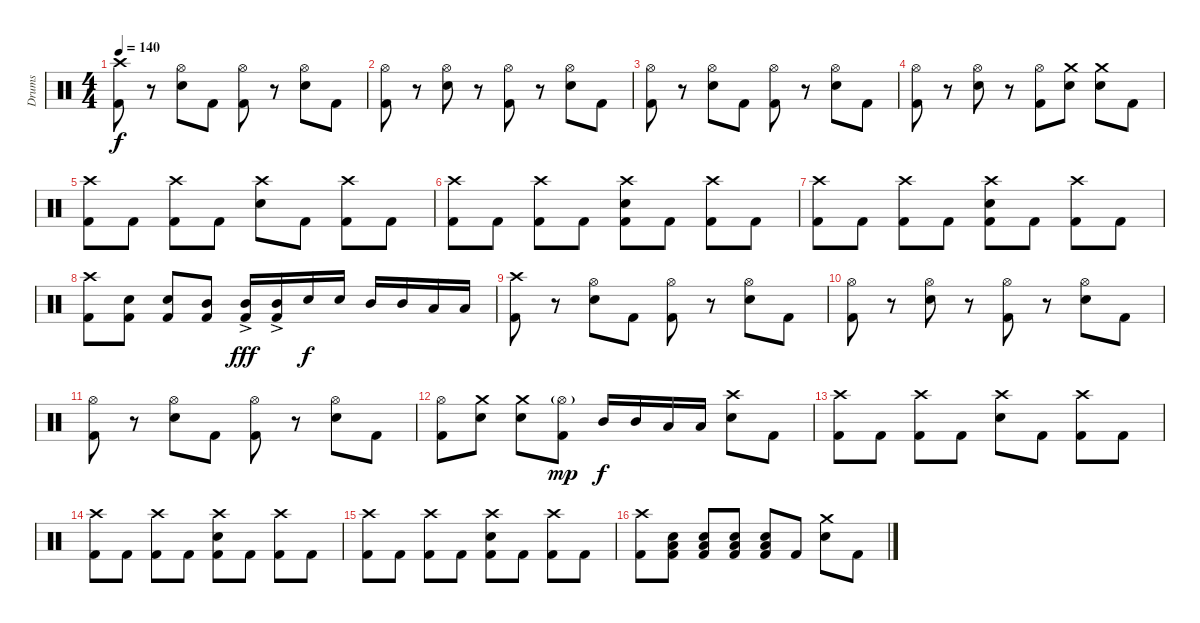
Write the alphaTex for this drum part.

\track ("Drums" "Drums") {instrument percussion}
\staff {score}
\articulation defaults
\ts (4 4)
\tempo 140
\clef neutral
\ks c
("Crash high (hit)" "Kick (hit) 2").8{dy f} r.8 ("Hi-Hat (open)" "Electric Snare (hit)").8 "Kick (hit) 2".8 ("Hi-Hat (open)" "Kick (hit) 2").8 r.8 ("Hi-Hat (open)" "Electric Snare (hit)").8 "Kick (hit) 2".8 |
("Hi-Hat (open)" "Kick (hit) 2").8 r.8 ("Hi-Hat (open)" "Electric Snare (hit)").8 r.8 ("Hi-Hat (open)" "Kick (hit) 2").8 r.8 ("Hi-Hat (open)" "Electric Snare (hit)").8 "Kick (hit) 2".8 |
("Hi-Hat (open)" "Kick (hit) 2").8 r.8 ("Hi-Hat (open)" "Electric Snare (hit)").8 "Kick (hit) 2".8 ("Hi-Hat (open)" "Kick (hit) 2").8 r.8 ("Hi-Hat (open)" "Electric Snare (hit)").8 "Kick (hit) 2".8 |
("Hi-Hat (open)" "Kick (hit) 2").8 r.8 ("Hi-Hat (open)" "Electric Snare (hit)").8 r.8 ("Hi-Hat (open)" "Kick (hit) 2").8 ("Crash medium (hit)" "Electric Snare (hit)").8 ("Crash medium (hit)" "Electric Snare (hit)").8 "Kick (hit) 2".8 |
("Crash high (hit)" "Kick (hit) 2").8 "Kick (hit) 2".8 ("Crash high (hit)" "Kick (hit) 2").8 "Kick (hit) 2".8 ("Crash high (hit)" "Electric Snare (hit)").8 "Kick (hit) 2".8 ("Crash high (hit)" "Kick (hit) 2").8 "Kick (hit) 2".8 |
("Crash high (hit)" "Kick (hit) 2").8 "Kick (hit) 2".8 ("Crash high (hit)" "Kick (hit) 2").8 "Kick (hit) 2".8 ("Crash high (hit)" "Electric Snare (hit)" "Kick (hit) 2").8 "Kick (hit) 2".8 ("Crash high (hit)" "Kick (hit) 2").8 "Kick (hit) 2".8 |
("Crash high (hit)" "Kick (hit) 2").8 "Kick (hit) 2".8 ("Crash high (hit)" "Kick (hit) 2").8 "Kick (hit) 2".8 ("Crash high (hit)" "Electric Snare (hit)" "Kick (hit) 2").8 "Kick (hit) 2".8 ("Crash high (hit)" "Kick (hit) 2").8 "Kick (hit) 2".8 |
("Crash high (hit)" "Kick (hit) 2").8 ("Electric Snare (hit)" "Kick (hit) 2").8 ("Electric Snare (hit)" "Kick (hit) 2").8 ("Mid Tom (hit)" "Kick (hit) 2").8 ("Mid Tom (hit)"{ac} "Kick (hit) 2").16{dy fff} ("Mid Tom (hit)"{ac} "Kick (hit) 2").16 "Electric Snare (hit)".16{dy f} "Electric Snare (hit)".16 "Mid Tom (hit)".16 "Mid Tom (hit)".16 "Low Tom (hit)".16 "Low Tom (hit)".16 |
("Crash high (hit)" "Kick (hit) 2").8 r.8 ("Hi-Hat (open)" "Electric Snare (hit)").8 "Kick (hit) 2".8 ("Hi-Hat (open)" "Kick (hit) 2").8 r.8 ("Hi-Hat (open)" "Electric Snare (hit)").8 "Kick (hit) 2".8 |
("Hi-Hat (open)" "Kick (hit) 2").8 r.8 ("Hi-Hat (open)" "Electric Snare (hit)").8 r.8 ("Hi-Hat (open)" "Kick (hit) 2").8 r.8 ("Hi-Hat (open)" "Electric Snare (hit)").8 "Kick (hit) 2".8 |
("Hi-Hat (open)" "Kick (hit) 2").8 r.8 ("Hi-Hat (open)" "Electric Snare (hit)").8 "Kick (hit) 2".8 ("Hi-Hat (open)" "Kick (hit) 2").8 r.8 ("Hi-Hat (open)" "Electric Snare (hit)").8 "Kick (hit) 2".8 |
("Hi-Hat (open)" "Kick (hit) 2").8 ("Crash medium (hit)" "Electric Snare (hit)").8 ("Crash medium (hit)" "Electric Snare (hit)").8 ("Hi-Hat (open)"{g} "Kick (hit) 2").8{dy mp} "Mid Tom (hit)".16{dy f} "Mid Tom (hit)".16 "Low Tom (hit)".16 "Low Tom (hit)".16 ("Crash high (hit)" "Electric Snare (hit)").8 "Kick (hit) 2".8 |
("Crash high (hit)" "Kick (hit) 2").8 "Kick (hit) 2".8 ("Crash high (hit)" "Kick (hit) 2").8 "Kick (hit) 2".8 ("Crash high (hit)" "Electric Snare (hit)").8 "Kick (hit) 2".8 ("Crash high (hit)" "Kick (hit) 2").8 "Kick (hit) 2".8 |
("Crash high (hit)" "Kick (hit) 2").8 "Kick (hit) 2".8 ("Crash high (hit)" "Kick (hit) 2").8 "Kick (hit) 2".8 ("Crash high (hit)" "Electric Snare (hit)" "Kick (hit) 2").8 "Kick (hit) 2".8 ("Crash high (hit)" "Kick (hit) 2").8 "Kick (hit) 2".8 |
("Crash high (hit)" "Kick (hit) 2").8 "Kick (hit) 2".8 ("Crash high (hit)" "Kick (hit) 2").8 "Kick (hit) 2".8 ("Crash high (hit)" "Electric Snare (hit)" "Kick (hit) 2").8 "Kick (hit) 2".8 ("Crash high (hit)" "Kick (hit) 2").8 "Kick (hit) 2".8 |
("Crash high (hit)" "Kick (hit) 2").8 ("Low Tom (hit)" "Electric Snare (hit)" "Kick (hit) 2").8 ("Low Tom (hit)" "Electric Snare (hit)" "Kick (hit) 2").8 ("Low Tom (hit)" "Electric Snare (hit)" "Kick (hit) 2").8 ("Low Tom (hit)" "Electric Snare (hit)" "Kick (hit) 2").8 "Kick (hit) 2".8 ("Crash medium (hit)" "Electric Snare (hit)").8 "Kick (hit) 2".8
